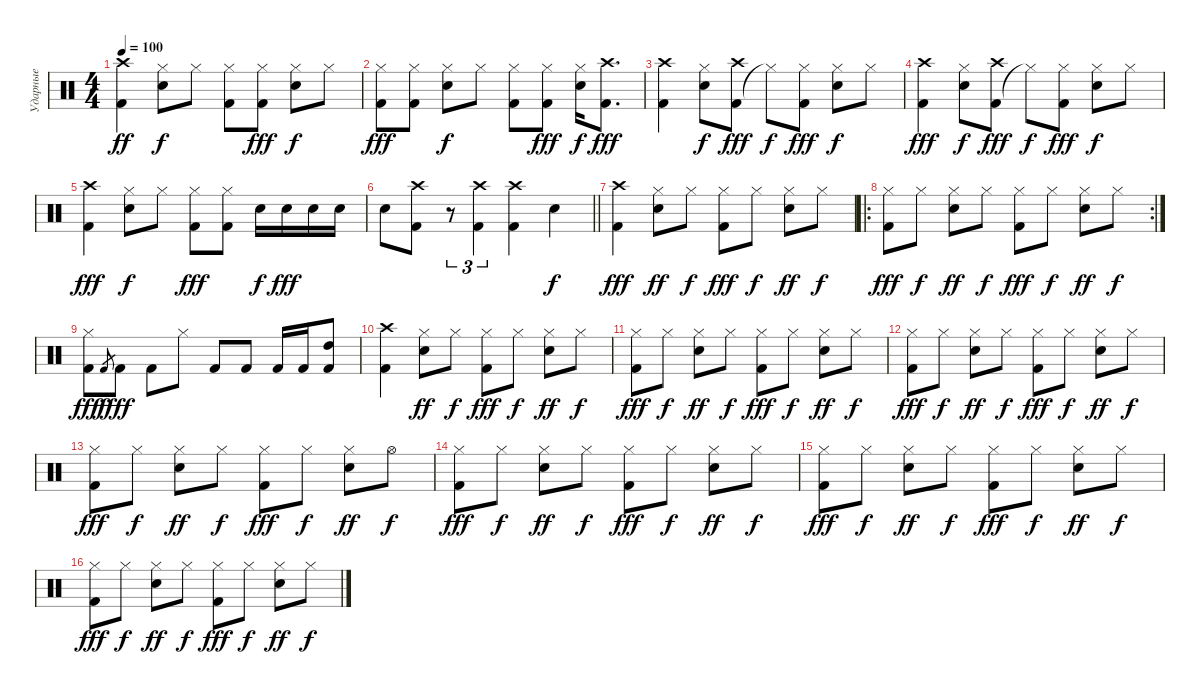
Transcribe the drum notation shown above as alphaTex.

\track ("Ударные" "Ударные") {instrument percussion}
\staff
\articulation defaults
\ts (4 4)
\tempo 100
\clef neutral
\ks c
("Kick (hit) 2" "Crash high (hit)").4{dy ff} ("Snare (hit) 2" "Hi-Hat (closed)").8{dy f} "Hi-Hat (closed)".8 ("Kick (hit) 2" "Hi-Hat (closed)").8 ("Kick (hit) 2" "Hi-Hat (closed)").8{dy fff} ("Snare (hit) 2" "Hi-Hat (closed)").8{dy f} "Hi-Hat (closed)".8 |
("Kick (hit) 2" "Hi-Hat (closed)").8{dy fff} ("Kick (hit) 2" "Hi-Hat (closed)").8 ("Snare (hit) 2" "Hi-Hat (closed)").8{dy f} "Hi-Hat (closed)".8 ("Kick (hit) 2" "Hi-Hat (closed)").8 ("Kick (hit) 2" "Hi-Hat (closed)").8{dy fff} ("Snare (hit) 2" "Hi-Hat (closed)").16{dy f} ("Kick (hit) 2" "Crash high (hit)").8{d dy fff} |
("Kick (hit) 2" "Crash high (hit)").4 ("Snare (hit) 2" "Hi-Hat (closed)").8{dy f} ("Kick (hit) 2" "Crash high (hit)").8{dy fff} "Hi-Hat (closed)"{t}.8{dy f} ("Kick (hit) 2" "Hi-Hat (closed)").8{dy fff} ("Snare (hit) 2" "Hi-Hat (closed)").8{dy f} "Hi-Hat (closed)".8 |
("Kick (hit) 2" "Crash high (hit)").4{dy fff} ("Snare (hit) 2" "Hi-Hat (closed)").8{dy f} ("Kick (hit) 2" "Crash high (hit)").8{dy fff} "Hi-Hat (closed)"{t}.8{dy f} ("Kick (hit) 2" "Hi-Hat (closed)").8{dy fff} ("Snare (hit) 2" "Hi-Hat (closed)").8{dy f} "Hi-Hat (closed)".8 |
("Kick (hit) 2" "Crash high (hit)").4{dy fff} ("Snare (hit) 2" "Hi-Hat (closed)").8{dy f} "Hi-Hat (closed)".8 ("Kick (hit) 2" "Hi-Hat (closed)").8{dy fff} ("Kick (hit) 2" "Hi-Hat (closed)").8 "Snare (hit) 2".16{dy f} "Snare (hit) 2".16{dy fff} "Snare (hit) 2".16 "Snare (hit) 2".16 |
\barLineRight lightlight "Snare (hit) 2".8
("Kick (hit) 2" "Crash high (hit)").8 r.8{tu (3 2)} ("Kick (hit) 2" "Crash high (hit)").4{tu (3 2)} ("Kick (hit) 2" "Crash high (hit)").4 "Snare (hit) 2".4{dy f} |
("Kick (hit) 2" "Crash high (hit)").4{dy fff} ("Snare (hit) 2" "Hi-Hat (closed)").8{dy ff} "Hi-Hat (closed)".8{dy f} ("Kick (hit) 2" "Hi-Hat (closed)").8{dy fff} "Hi-Hat (closed)".8{dy f} ("Snare (hit) 2" "Hi-Hat (closed)").8{dy ff} "Hi-Hat (closed)".8{dy f} |
\ro
\rc 2
("Kick (hit) 2" "Hi-Hat (closed)").8{dy fff} "Hi-Hat (closed)".8{dy f} ("Snare (hit) 2" "Hi-Hat (closed)").8{dy ff} "Hi-Hat (closed)".8{dy f} ("Kick (hit) 2" "Hi-Hat (closed)").8{dy fff} "Hi-Hat (closed)".8{dy f} ("Snare (hit) 2" "Hi-Hat (closed)").8{dy ff} "Hi-Hat (closed)".8{dy f} |
("Kick (hit) 2" "Hi-Hat (closed)").8{dy fff} "Kick (hit) 2".8{gr dy f} "Kick (hit) 2".8{dy fff} "Kick (hit) 2".8 "Hi-Hat (closed)".8 "Kick (hit) 2".8 "Kick (hit) 2".8 "Kick (hit) 2".16 "Kick (hit) 2".16 ("Kick (hit) 2" "High Tom (hit)").8 |
("Kick (hit) 2" "Crash high (hit)").4 ("Snare (hit) 2" "Hi-Hat (closed)").8{dy ff} "Hi-Hat (closed)".8{dy f} ("Kick (hit) 2" "Hi-Hat (closed)").8{dy fff} "Hi-Hat (closed)".8{dy f} ("Snare (hit) 2" "Hi-Hat (closed)").8{dy ff} "Hi-Hat (closed)".8{dy f} |
("Kick (hit) 2" "Hi-Hat (closed)").8{dy fff} "Hi-Hat (closed)".8{dy f} ("Snare (hit) 2" "Hi-Hat (closed)").8{dy ff} "Hi-Hat (closed)".8{dy f} ("Kick (hit) 2" "Hi-Hat (closed)").8{dy fff} "Hi-Hat (closed)".8{dy f} ("Snare (hit) 2" "Hi-Hat (closed)").8{dy ff} "Hi-Hat (closed)".8{dy f} |
("Kick (hit) 2" "Hi-Hat (closed)").8{dy fff} "Hi-Hat (closed)".8{dy f} ("Snare (hit) 2" "Hi-Hat (closed)").8{dy ff} "Hi-Hat (closed)".8{dy f} ("Kick (hit) 2" "Hi-Hat (closed)").8{dy fff} "Hi-Hat (closed)".8{dy f} ("Snare (hit) 2" "Hi-Hat (closed)").8{dy ff} "Hi-Hat (closed)".8{dy f} |
("Kick (hit) 2" "Hi-Hat (closed)").8{dy fff} "Hi-Hat (closed)".8{dy f} ("Snare (hit) 2" "Hi-Hat (closed)").8{dy ff} "Hi-Hat (closed)".8{dy f} ("Kick (hit) 2" "Hi-Hat (closed)").8{dy fff} "Hi-Hat (closed)".8{dy f} ("Snare (hit) 2" "Hi-Hat (closed)").8{dy ff} "Hi-Hat (open)".8{dy f} |
("Kick (hit) 2" "Hi-Hat (closed)").8{dy fff} "Hi-Hat (closed)".8{dy f} ("Snare (hit) 2" "Hi-Hat (closed)").8{dy ff} "Hi-Hat (closed)".8{dy f} ("Kick (hit) 2" "Hi-Hat (closed)").8{dy fff} "Hi-Hat (closed)".8{dy f} ("Snare (hit) 2" "Hi-Hat (closed)").8{dy ff} "Hi-Hat (closed)".8{dy f} |
("Kick (hit) 2" "Hi-Hat (closed)").8{dy fff} "Hi-Hat (closed)".8{dy f} ("Snare (hit) 2" "Hi-Hat (closed)").8{dy ff} "Hi-Hat (closed)".8{dy f} ("Kick (hit) 2" "Hi-Hat (closed)").8{dy fff} "Hi-Hat (closed)".8{dy f} ("Snare (hit) 2" "Hi-Hat (closed)").8{dy ff} "Hi-Hat (closed)".8{dy f} |
("Kick (hit) 2" "Hi-Hat (closed)").8{dy fff} "Hi-Hat (closed)".8{dy f} ("Snare (hit) 2" "Hi-Hat (closed)").8{dy ff} "Hi-Hat (closed)".8{dy f} ("Kick (hit) 2" "Hi-Hat (closed)").8{dy fff} "Hi-Hat (closed)".8{dy f} ("Snare (hit) 2" "Hi-Hat (closed)").8{dy ff} "Hi-Hat (closed)".8{dy f}
